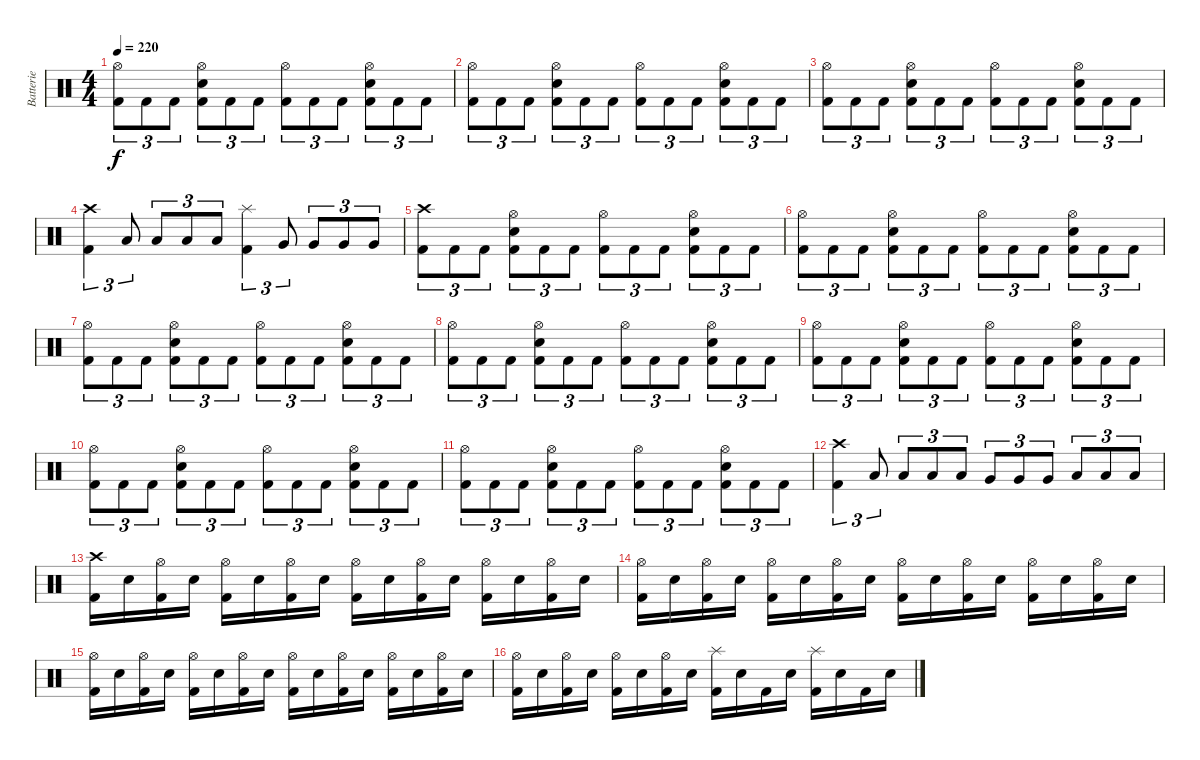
\track ("Batterie" "Batterie") {instrument percussion}
\staff {score}
\articulation defaults
\ts (4 4)
\tempo 220
\clef neutral
\ks c
("Hi-Hat (open)" "Kick (hit) 2").8{tu (3 2) dy f} "Kick (hit) 2".8{tu (3 2)} "Kick (hit) 2".8{tu (3 2)} ("Hi-Hat (open)" "Electric Snare (hit)" "Kick (hit) 2").8{tu (3 2)} "Kick (hit) 2".8{tu (3 2)} "Kick (hit) 2".8{tu (3 2)} ("Hi-Hat (open)" "Kick (hit) 2").8{tu (3 2)} "Kick (hit) 2".8{tu (3 2)} "Kick (hit) 2".8{tu (3 2)} ("Hi-Hat (open)" "Electric Snare (hit)" "Kick (hit) 2").8{tu (3 2)} "Kick (hit) 2".8{tu (3 2)} "Kick (hit) 2".8{tu (3 2)} |
("Hi-Hat (open)" "Kick (hit) 2").8{tu (3 2)} "Kick (hit) 2".8{tu (3 2)} "Kick (hit) 2".8{tu (3 2)} ("Hi-Hat (open)" "Electric Snare (hit)" "Kick (hit) 2").8{tu (3 2)} "Kick (hit) 2".8{tu (3 2)} "Kick (hit) 2".8{tu (3 2)} ("Hi-Hat (open)" "Kick (hit) 2").8{tu (3 2)} "Kick (hit) 2".8{tu (3 2)} "Kick (hit) 2".8{tu (3 2)} ("Hi-Hat (open)" "Electric Snare (hit)" "Kick (hit) 2").8{tu (3 2)} "Kick (hit) 2".8{tu (3 2)} "Kick (hit) 2".8{tu (3 2)} |
("Hi-Hat (open)" "Kick (hit) 2").8{tu (3 2)} "Kick (hit) 2".8{tu (3 2)} "Kick (hit) 2".8{tu (3 2)} ("Hi-Hat (open)" "Electric Snare (hit)" "Kick (hit) 2").8{tu (3 2)} "Kick (hit) 2".8{tu (3 2)} "Kick (hit) 2".8{tu (3 2)} ("Hi-Hat (open)" "Kick (hit) 2").8{tu (3 2)} "Kick (hit) 2".8{tu (3 2)} "Kick (hit) 2".8{tu (3 2)} ("Hi-Hat (open)" "Electric Snare (hit)" "Kick (hit) 2").8{tu (3 2)} "Kick (hit) 2".8{tu (3 2)} "Kick (hit) 2".8{tu (3 2)} |
("Crash high (hit)" "Kick (hit) 2").4{tu (3 2)} "Low Tom (hit)".8{tu (3 2)} "Low Tom (hit)".8{tu (3 2)} "Low Tom (hit)".8{tu (3 2)} "Low Tom (hit)".8{tu (3 2)} ("Splash (hit)" "Kick (hit) 2").4{tu (3 2)} "Very Low Tom (hit)".8{tu (3 2)} "Very Low Tom (hit)".8{tu (3 2)} "Very Low Tom (hit)".8{tu (3 2)} "Very Low Tom (hit)".8{tu (3 2)} |
("Crash high (hit)" "Kick (hit) 2").8{tu (3 2)} "Kick (hit) 2".8{tu (3 2)} "Kick (hit) 2".8{tu (3 2)} ("Hi-Hat (open)" "Electric Snare (hit)" "Kick (hit) 2").8{tu (3 2)} "Kick (hit) 2".8{tu (3 2)} "Kick (hit) 2".8{tu (3 2)} ("Hi-Hat (open)" "Kick (hit) 2").8{tu (3 2)} "Kick (hit) 2".8{tu (3 2)} "Kick (hit) 2".8{tu (3 2)} ("Hi-Hat (open)" "Electric Snare (hit)" "Kick (hit) 2").8{tu (3 2)} "Kick (hit) 2".8{tu (3 2)} "Kick (hit) 2".8{tu (3 2)} |
("Hi-Hat (open)" "Kick (hit) 2").8{tu (3 2)} "Kick (hit) 2".8{tu (3 2)} "Kick (hit) 2".8{tu (3 2)} ("Hi-Hat (open)" "Electric Snare (hit)" "Kick (hit) 2").8{tu (3 2)} "Kick (hit) 2".8{tu (3 2)} "Kick (hit) 2".8{tu (3 2)} ("Hi-Hat (open)" "Kick (hit) 2").8{tu (3 2)} "Kick (hit) 2".8{tu (3 2)} "Kick (hit) 2".8{tu (3 2)} ("Hi-Hat (open)" "Electric Snare (hit)" "Kick (hit) 2").8{tu (3 2)} "Kick (hit) 2".8{tu (3 2)} "Kick (hit) 2".8{tu (3 2)} |
("Hi-Hat (open)" "Kick (hit) 2").8{tu (3 2)} "Kick (hit) 2".8{tu (3 2)} "Kick (hit) 2".8{tu (3 2)} ("Hi-Hat (open)" "Electric Snare (hit)" "Kick (hit) 2").8{tu (3 2)} "Kick (hit) 2".8{tu (3 2)} "Kick (hit) 2".8{tu (3 2)} ("Hi-Hat (open)" "Kick (hit) 2").8{tu (3 2)} "Kick (hit) 2".8{tu (3 2)} "Kick (hit) 2".8{tu (3 2)} ("Hi-Hat (open)" "Electric Snare (hit)" "Kick (hit) 2").8{tu (3 2)} "Kick (hit) 2".8{tu (3 2)} "Kick (hit) 2".8{tu (3 2)} |
("Hi-Hat (open)" "Kick (hit) 2").8{tu (3 2)} "Kick (hit) 2".8{tu (3 2)} "Kick (hit) 2".8{tu (3 2)} ("Hi-Hat (open)" "Electric Snare (hit)" "Kick (hit) 2").8{tu (3 2)} "Kick (hit) 2".8{tu (3 2)} "Kick (hit) 2".8{tu (3 2)} ("Hi-Hat (open)" "Kick (hit) 2").8{tu (3 2)} "Kick (hit) 2".8{tu (3 2)} "Kick (hit) 2".8{tu (3 2)} ("Hi-Hat (open)" "Electric Snare (hit)" "Kick (hit) 2").8{tu (3 2)} "Kick (hit) 2".8{tu (3 2)} "Kick (hit) 2".8{tu (3 2)} |
("Hi-Hat (open)" "Kick (hit) 2").8{tu (3 2)} "Kick (hit) 2".8{tu (3 2)} "Kick (hit) 2".8{tu (3 2)} ("Hi-Hat (open)" "Electric Snare (hit)" "Kick (hit) 2").8{tu (3 2)} "Kick (hit) 2".8{tu (3 2)} "Kick (hit) 2".8{tu (3 2)} ("Hi-Hat (open)" "Kick (hit) 2").8{tu (3 2)} "Kick (hit) 2".8{tu (3 2)} "Kick (hit) 2".8{tu (3 2)} ("Hi-Hat (open)" "Electric Snare (hit)" "Kick (hit) 2").8{tu (3 2)} "Kick (hit) 2".8{tu (3 2)} "Kick (hit) 2".8{tu (3 2)} |
("Hi-Hat (open)" "Kick (hit) 2").8{tu (3 2)} "Kick (hit) 2".8{tu (3 2)} "Kick (hit) 2".8{tu (3 2)} ("Hi-Hat (open)" "Electric Snare (hit)" "Kick (hit) 2").8{tu (3 2)} "Kick (hit) 2".8{tu (3 2)} "Kick (hit) 2".8{tu (3 2)} ("Hi-Hat (open)" "Kick (hit) 2").8{tu (3 2)} "Kick (hit) 2".8{tu (3 2)} "Kick (hit) 2".8{tu (3 2)} ("Hi-Hat (open)" "Electric Snare (hit)" "Kick (hit) 2").8{tu (3 2)} "Kick (hit) 2".8{tu (3 2)} "Kick (hit) 2".8{tu (3 2)} |
("Hi-Hat (open)" "Kick (hit) 2").8{tu (3 2)} "Kick (hit) 2".8{tu (3 2)} "Kick (hit) 2".8{tu (3 2)} ("Hi-Hat (open)" "Electric Snare (hit)" "Kick (hit) 2").8{tu (3 2)} "Kick (hit) 2".8{tu (3 2)} "Kick (hit) 2".8{tu (3 2)} ("Hi-Hat (open)" "Kick (hit) 2").8{tu (3 2)} "Kick (hit) 2".8{tu (3 2)} "Kick (hit) 2".8{tu (3 2)} ("Hi-Hat (open)" "Electric Snare (hit)" "Kick (hit) 2").8{tu (3 2)} "Kick (hit) 2".8{tu (3 2)} "Kick (hit) 2".8{tu (3 2)} |
("Crash high (hit)" "Kick (hit) 2").4{tu (3 2)} "Low Tom (hit)".8{tu (3 2)} "Low Tom (hit)".8{tu (3 2)} "Low Tom (hit)".8{tu (3 2)} "Low Tom (hit)".8{tu (3 2)} "Very Low Tom (hit)".8{tu (3 2)} "Very Low Tom (hit)".8{tu (3 2)} "Very Low Tom (hit)".8{tu (3 2)} "Low Floor Tom (hit)".8{tu (3 2)} "Low Floor Tom (hit)".8{tu (3 2)} "Low Floor Tom (hit)".8{tu (3 2)} |
("Crash high (hit)" "Kick (hit) 2").16 "Electric Snare (hit)".16 ("Hi-Hat (open)" "Kick (hit) 2").16 "Electric Snare (hit)".16 ("Hi-Hat (open)" "Kick (hit) 2").16 "Electric Snare (hit)".16 ("Hi-Hat (open)" "Kick (hit) 2").16 "Electric Snare (hit)".16 ("Hi-Hat (open)" "Kick (hit) 2").16 "Electric Snare (hit)".16 ("Hi-Hat (open)" "Kick (hit) 2").16 "Electric Snare (hit)".16 ("Hi-Hat (open)" "Kick (hit) 2").16 "Electric Snare (hit)".16 ("Hi-Hat (open)" "Kick (hit) 2").16 "Electric Snare (hit)".16 |
("Hi-Hat (open)" "Kick (hit) 2").16 "Electric Snare (hit)".16 ("Hi-Hat (open)" "Kick (hit) 2").16 "Electric Snare (hit)".16 ("Hi-Hat (open)" "Kick (hit) 2").16 "Electric Snare (hit)".16 ("Hi-Hat (open)" "Kick (hit) 2").16 "Electric Snare (hit)".16 ("Hi-Hat (open)" "Kick (hit) 2").16 "Electric Snare (hit)".16 ("Hi-Hat (open)" "Kick (hit) 2").16 "Electric Snare (hit)".16 ("Hi-Hat (open)" "Kick (hit) 2").16 "Electric Snare (hit)".16 ("Hi-Hat (open)" "Kick (hit) 2").16 "Electric Snare (hit)".16 |
("Hi-Hat (open)" "Kick (hit) 2").16 "Electric Snare (hit)".16 ("Hi-Hat (open)" "Kick (hit) 2").16 "Electric Snare (hit)".16 ("Hi-Hat (open)" "Kick (hit) 2").16 "Electric Snare (hit)".16 ("Hi-Hat (open)" "Kick (hit) 2").16 "Electric Snare (hit)".16 ("Hi-Hat (open)" "Kick (hit) 2").16 "Electric Snare (hit)".16 ("Hi-Hat (open)" "Kick (hit) 2").16 "Electric Snare (hit)".16 ("Hi-Hat (open)" "Kick (hit) 2").16 "Electric Snare (hit)".16 ("Hi-Hat (open)" "Kick (hit) 2").16 "Electric Snare (hit)".16 |
("Hi-Hat (open)" "Kick (hit) 2").16 "Electric Snare (hit)".16 ("Hi-Hat (open)" "Kick (hit) 2").16 "Electric Snare (hit)".16 ("Hi-Hat (open)" "Kick (hit) 2").16 "Electric Snare (hit)".16 ("Hi-Hat (open)" "Kick (hit) 2").16 "Electric Snare (hit)".16 ("Splash (hit)" "Kick (hit) 2").16 "Electric Snare (hit)".16 "Kick (hit) 2".16 "Electric Snare (hit)".16 ("Splash (hit)" "Kick (hit) 2").16 "Electric Snare (hit)".16 "Kick (hit) 2".16 "Electric Snare (hit)".16
